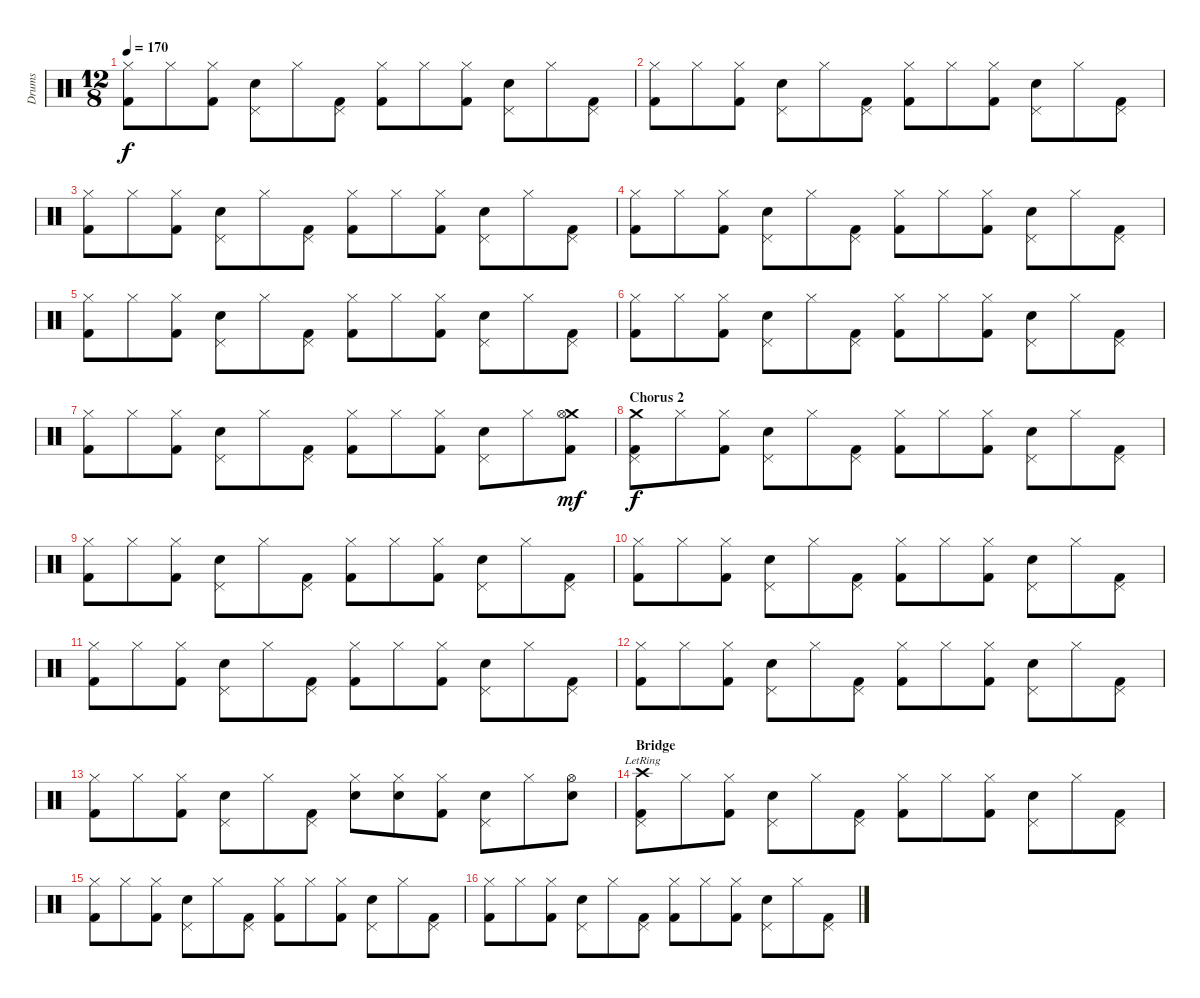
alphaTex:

\track ("Drums" "Drums") {instrument percussion}
\staff {score}
\articulation defaults
\ts (12 8)
\tempo 170
\clef neutral
\ks c
("Kick (hit) 2" "Hi-Hat (closed)").8{dy f} "Hi-Hat (closed)".8 ("Kick (hit) 2" "Hi-Hat (closed)").8 ("Snare (hit) 2" "Pedal Hi-Hat (hit)").8 "Hi-Hat (closed)".8 ("Kick (hit) 2" "Pedal Hi-Hat (hit)").8 ("Kick (hit) 2" "Hi-Hat (closed)").8 "Hi-Hat (closed)".8 ("Kick (hit) 2" "Hi-Hat (closed)").8 ("Snare (hit) 2" "Pedal Hi-Hat (hit)").8 "Hi-Hat (closed)".8 ("Kick (hit) 2" "Pedal Hi-Hat (hit)").8 |
("Kick (hit) 2" "Hi-Hat (closed)").8 "Hi-Hat (closed)".8 ("Kick (hit) 2" "Hi-Hat (closed)").8 ("Snare (hit) 2" "Pedal Hi-Hat (hit)").8 "Hi-Hat (closed)".8 ("Kick (hit) 2" "Pedal Hi-Hat (hit)").8 ("Kick (hit) 2" "Hi-Hat (closed)").8 "Hi-Hat (closed)".8 ("Kick (hit) 2" "Hi-Hat (closed)").8 ("Snare (hit) 2" "Pedal Hi-Hat (hit)").8 "Hi-Hat (closed)".8 ("Kick (hit) 2" "Pedal Hi-Hat (hit)").8 |
("Kick (hit) 2" "Hi-Hat (closed)").8 "Hi-Hat (closed)".8 ("Kick (hit) 2" "Hi-Hat (closed)").8 ("Snare (hit) 2" "Pedal Hi-Hat (hit)").8 "Hi-Hat (closed)".8 ("Kick (hit) 2" "Pedal Hi-Hat (hit)").8 ("Kick (hit) 2" "Hi-Hat (closed)").8 "Hi-Hat (closed)".8 ("Kick (hit) 2" "Hi-Hat (closed)").8 ("Snare (hit) 2" "Pedal Hi-Hat (hit)").8 "Hi-Hat (closed)".8 ("Kick (hit) 2" "Pedal Hi-Hat (hit)").8 |
("Kick (hit) 2" "Hi-Hat (closed)").8 "Hi-Hat (closed)".8 ("Kick (hit) 2" "Hi-Hat (closed)").8 ("Snare (hit) 2" "Pedal Hi-Hat (hit)").8 "Hi-Hat (closed)".8 ("Kick (hit) 2" "Pedal Hi-Hat (hit)").8 ("Kick (hit) 2" "Hi-Hat (closed)").8 "Hi-Hat (closed)".8 ("Kick (hit) 2" "Hi-Hat (closed)").8 ("Snare (hit) 2" "Pedal Hi-Hat (hit)").8 "Hi-Hat (closed)".8 ("Kick (hit) 2" "Pedal Hi-Hat (hit)").8 |
("Kick (hit) 2" "Hi-Hat (closed)").8 "Hi-Hat (closed)".8 ("Kick (hit) 2" "Hi-Hat (closed)").8 ("Snare (hit) 2" "Pedal Hi-Hat (hit)").8 "Hi-Hat (closed)".8 ("Kick (hit) 2" "Pedal Hi-Hat (hit)").8 ("Kick (hit) 2" "Hi-Hat (closed)").8 "Hi-Hat (closed)".8 ("Kick (hit) 2" "Hi-Hat (closed)").8 ("Snare (hit) 2" "Pedal Hi-Hat (hit)").8 "Hi-Hat (closed)".8 ("Kick (hit) 2" "Pedal Hi-Hat (hit)").8 |
("Kick (hit) 2" "Hi-Hat (closed)").8 "Hi-Hat (closed)".8 ("Kick (hit) 2" "Hi-Hat (closed)").8 ("Snare (hit) 2" "Pedal Hi-Hat (hit)").8 "Hi-Hat (closed)".8 ("Kick (hit) 2" "Pedal Hi-Hat (hit)").8 ("Kick (hit) 2" "Hi-Hat (closed)").8 "Hi-Hat (closed)".8 ("Kick (hit) 2" "Hi-Hat (closed)").8 ("Snare (hit) 2" "Pedal Hi-Hat (hit)").8 "Hi-Hat (closed)".8 ("Kick (hit) 2" "Pedal Hi-Hat (hit)").8 |
("Kick (hit) 2" "Hi-Hat (closed)").8 "Hi-Hat (closed)".8 ("Kick (hit) 2" "Hi-Hat (closed)").8 ("Snare (hit) 2" "Pedal Hi-Hat (hit)").8 "Hi-Hat (closed)".8 ("Kick (hit) 2" "Pedal Hi-Hat (hit)").8 ("Kick (hit) 2" "Hi-Hat (closed)").8 "Hi-Hat (closed)".8 ("Kick (hit) 2" "Hi-Hat (closed)").8 ("Snare (hit) 2" "Pedal Hi-Hat (hit)").8 "Hi-Hat (closed)".8 ("Kick (hit) 2" "Crash medium (hit)" "Hi-Hat (open)").8{dy mf} |
\section ("" "Chorus 2")
("Kick (hit) 2" "Crash medium (hit)" "Pedal Hi-Hat (hit)").8{dy f} "Hi-Hat (closed)".8 ("Kick (hit) 2" "Hi-Hat (closed)").8 ("Snare (hit) 2" "Pedal Hi-Hat (hit)").8 "Hi-Hat (closed)".8 ("Kick (hit) 2" "Pedal Hi-Hat (hit)").8 ("Kick (hit) 2" "Hi-Hat (closed)").8 "Hi-Hat (closed)".8 ("Kick (hit) 2" "Hi-Hat (closed)").8 ("Snare (hit) 2" "Pedal Hi-Hat (hit)").8 "Hi-Hat (closed)".8 ("Kick (hit) 2" "Pedal Hi-Hat (hit)").8 |
("Kick (hit) 2" "Hi-Hat (closed)").8 "Hi-Hat (closed)".8 ("Kick (hit) 2" "Hi-Hat (closed)").8 ("Snare (hit) 2" "Pedal Hi-Hat (hit)").8 "Hi-Hat (closed)".8 ("Kick (hit) 2" "Pedal Hi-Hat (hit)").8 ("Kick (hit) 2" "Hi-Hat (closed)").8 "Hi-Hat (closed)".8 ("Kick (hit) 2" "Hi-Hat (closed)").8 ("Snare (hit) 2" "Pedal Hi-Hat (hit)").8 "Hi-Hat (closed)".8 ("Kick (hit) 2" "Pedal Hi-Hat (hit)").8 |
("Kick (hit) 2" "Hi-Hat (closed)").8 "Hi-Hat (closed)".8 ("Kick (hit) 2" "Hi-Hat (closed)").8 ("Snare (hit) 2" "Pedal Hi-Hat (hit)").8 "Hi-Hat (closed)".8 ("Kick (hit) 2" "Pedal Hi-Hat (hit)").8 ("Kick (hit) 2" "Hi-Hat (closed)").8 "Hi-Hat (closed)".8 ("Kick (hit) 2" "Hi-Hat (closed)").8 ("Snare (hit) 2" "Pedal Hi-Hat (hit)").8 "Hi-Hat (closed)".8 ("Kick (hit) 2" "Pedal Hi-Hat (hit)").8 |
("Kick (hit) 2" "Hi-Hat (closed)").8 "Hi-Hat (closed)".8 ("Kick (hit) 2" "Hi-Hat (closed)").8 ("Snare (hit) 2" "Pedal Hi-Hat (hit)").8 "Hi-Hat (closed)".8 ("Kick (hit) 2" "Pedal Hi-Hat (hit)").8 ("Kick (hit) 2" "Hi-Hat (closed)").8 "Hi-Hat (closed)".8 ("Kick (hit) 2" "Hi-Hat (closed)").8 ("Snare (hit) 2" "Pedal Hi-Hat (hit)").8 "Hi-Hat (closed)".8 ("Kick (hit) 2" "Pedal Hi-Hat (hit)").8 |
("Kick (hit) 2" "Hi-Hat (closed)").8 "Hi-Hat (closed)".8 ("Kick (hit) 2" "Hi-Hat (closed)").8 ("Snare (hit) 2" "Pedal Hi-Hat (hit)").8 "Hi-Hat (closed)".8 ("Kick (hit) 2" "Pedal Hi-Hat (hit)").8 ("Kick (hit) 2" "Hi-Hat (closed)").8 "Hi-Hat (closed)".8 ("Kick (hit) 2" "Hi-Hat (closed)").8 ("Snare (hit) 2" "Pedal Hi-Hat (hit)").8 "Hi-Hat (closed)".8 ("Kick (hit) 2" "Pedal Hi-Hat (hit)").8 |
("Kick (hit) 2" "Hi-Hat (closed)").8 "Hi-Hat (closed)".8 ("Kick (hit) 2" "Hi-Hat (closed)").8 ("Snare (hit) 2" "Pedal Hi-Hat (hit)").8 "Hi-Hat (closed)".8 ("Kick (hit) 2" "Pedal Hi-Hat (hit)").8 ("Snare (hit) 2" "Hi-Hat (closed)").8 ("Snare (hit) 2" "Hi-Hat (closed)").8 ("Kick (hit) 2" "Hi-Hat (closed)").8 ("Snare (hit) 2" "Pedal Hi-Hat (hit)").8 "Hi-Hat (closed)".8 ("Snare (hit) 2" "Hi-Hat (open)").8 |
\section ("" "Bridge")
("Kick (hit) 2" "Crash high (hit)"{lr} "Pedal Hi-Hat (hit)").8 "Hi-Hat (closed)".8 ("Kick (hit) 2" "Hi-Hat (closed)").8 ("Snare (hit) 2" "Pedal Hi-Hat (hit)").8 "Hi-Hat (closed)".8 ("Kick (hit) 2" "Pedal Hi-Hat (hit)").8 ("Kick (hit) 2" "Hi-Hat (closed)").8 "Hi-Hat (closed)".8 ("Kick (hit) 2" "Hi-Hat (closed)").8 ("Snare (hit) 2" "Pedal Hi-Hat (hit)").8 "Hi-Hat (closed)".8 ("Kick (hit) 2" "Pedal Hi-Hat (hit)").8 |
("Kick (hit) 2" "Hi-Hat (closed)").8 "Hi-Hat (closed)".8 ("Kick (hit) 2" "Hi-Hat (closed)").8 ("Snare (hit) 2" "Pedal Hi-Hat (hit)").8 "Hi-Hat (closed)".8 ("Kick (hit) 2" "Pedal Hi-Hat (hit)").8 ("Kick (hit) 2" "Hi-Hat (closed)").8 "Hi-Hat (closed)".8 ("Kick (hit) 2" "Hi-Hat (closed)").8 ("Snare (hit) 2" "Pedal Hi-Hat (hit)").8 "Hi-Hat (closed)".8 ("Kick (hit) 2" "Pedal Hi-Hat (hit)").8 |
("Kick (hit) 2" "Hi-Hat (closed)").8 "Hi-Hat (closed)".8 ("Kick (hit) 2" "Hi-Hat (closed)").8 ("Snare (hit) 2" "Pedal Hi-Hat (hit)").8 "Hi-Hat (closed)".8 ("Kick (hit) 2" "Pedal Hi-Hat (hit)").8 ("Kick (hit) 2" "Hi-Hat (closed)").8 "Hi-Hat (closed)".8 ("Kick (hit) 2" "Hi-Hat (closed)").8 ("Snare (hit) 2" "Pedal Hi-Hat (hit)").8 "Hi-Hat (closed)".8 ("Kick (hit) 2" "Pedal Hi-Hat (hit)").8
